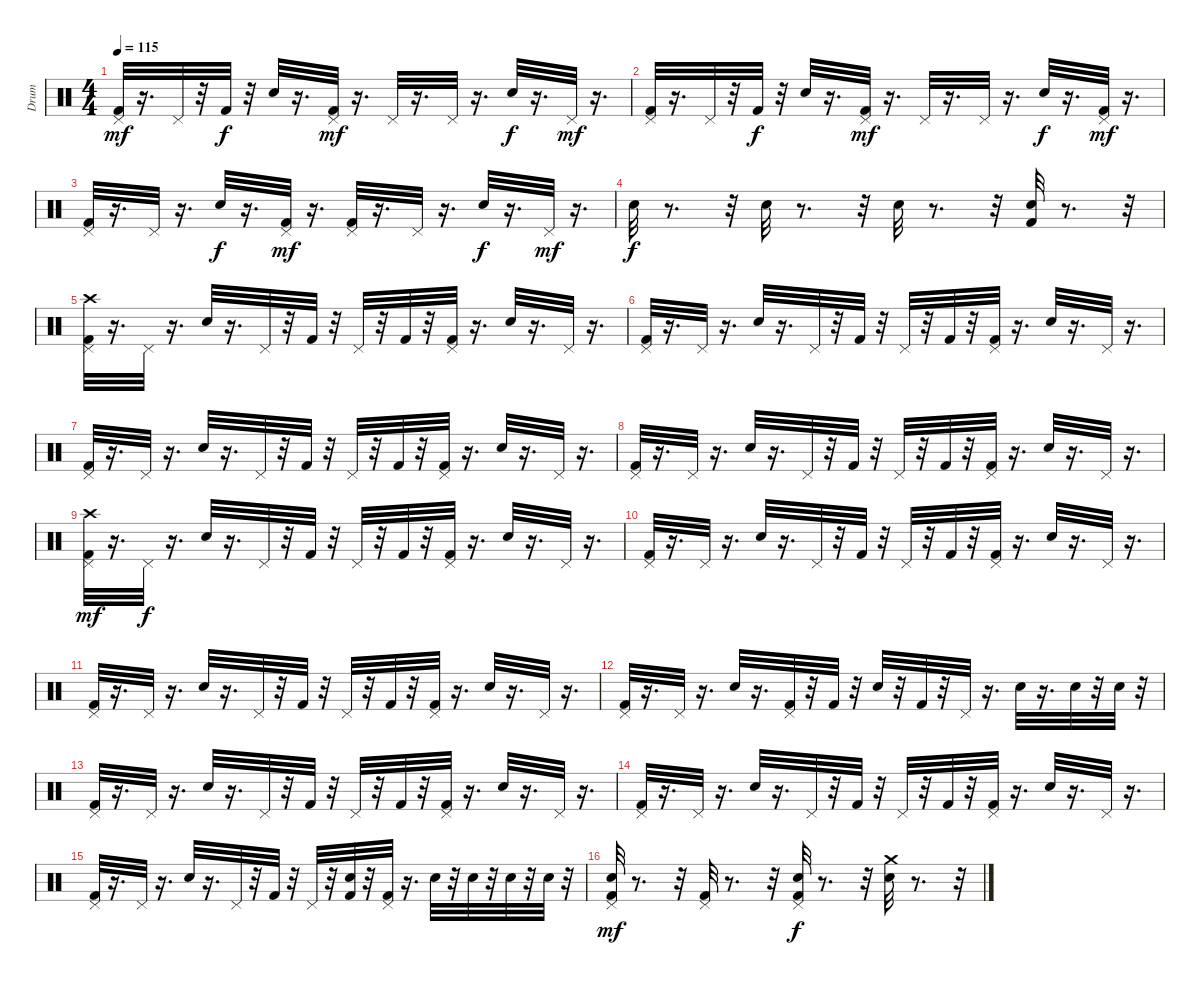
\track ("Drum" "Drum") {instrument percussion}
\staff {score}
\articulation defaults
\ts (4 4)
\tempo 115
\clef neutral
\ks c
("Kick (hit) 2" "Pedal Hi-Hat (hit)").32{dy mf} r.16{d} "Pedal Hi-Hat (hit)".32 r.32 "Kick (hit) 2".32{dy f} r.32 "Snare (hit) 2".32 r.16{d} ("Kick (hit) 2" "Pedal Hi-Hat (hit)").32{dy mf} r.16{d} "Pedal Hi-Hat (hit)".32 r.16{d} "Pedal Hi-Hat (hit)".32 r.16{d} "Snare (hit) 2".32{dy f} r.16{d} "Pedal Hi-Hat (hit)".32{dy mf} r.16{d} |
("Kick (hit) 2" "Pedal Hi-Hat (hit)").32 r.16{d} "Pedal Hi-Hat (hit)".32 r.32 "Kick (hit) 2".32{dy f} r.32 "Snare (hit) 2".32 r.16{d} ("Kick (hit) 2" "Pedal Hi-Hat (hit)").32{dy mf} r.16{d} "Pedal Hi-Hat (hit)".32 r.16{d} "Pedal Hi-Hat (hit)".32 r.16{d} "Snare (hit) 2".32{dy f} r.16{d} ("Kick (hit) 2" "Pedal Hi-Hat (hit)").32{dy mf} r.16{d} |
("Kick (hit) 2" "Pedal Hi-Hat (hit)").32 r.16{d} "Pedal Hi-Hat (hit)".32 r.16{d} "Snare (hit) 2".32{dy f} r.16{d} ("Kick (hit) 2" "Pedal Hi-Hat (hit)").32{dy mf} r.16{d} ("Kick (hit) 2" "Pedal Hi-Hat (hit)").32 r.16{d} "Pedal Hi-Hat (hit)".32 r.16{d} "Snare (hit) 2".32{dy f} r.16{d} "Pedal Hi-Hat (hit)".32{dy mf} r.16{d} |
"Snare (hit) 2".32{dy f} r.8{d} r.32 "Snare (hit) 2".32 r.8{d} r.32 "Snare (hit) 2".32 r.8{d} r.32 ("Snare (hit) 2" "Kick (hit) 2").32 r.8{d} r.32 |
("Kick (hit) 2" "Crash high (hit)" "Pedal Hi-Hat (hit)").32 r.16{d} "Pedal Hi-Hat (hit)".32 r.16{d} "Snare (hit) 2".32 r.16{d} "Pedal Hi-Hat (hit)".32 r.32 "Kick (hit) 2".32 r.32 "Pedal Hi-Hat (hit)".32 r.32 "Kick (hit) 2".32 r.32 ("Kick (hit) 2" "Pedal Hi-Hat (hit)").32 r.16{d} "Snare (hit) 2".32 r.16{d} "Pedal Hi-Hat (hit)".32 r.16{d} |
("Kick (hit) 2" "Pedal Hi-Hat (hit)").32 r.16{d} "Pedal Hi-Hat (hit)".32 r.16{d} "Snare (hit) 2".32 r.16{d} "Pedal Hi-Hat (hit)".32 r.32 "Kick (hit) 2".32 r.32 "Pedal Hi-Hat (hit)".32 r.32 "Kick (hit) 2".32 r.32 ("Kick (hit) 2" "Pedal Hi-Hat (hit)").32 r.16{d} "Snare (hit) 2".32 r.16{d} "Pedal Hi-Hat (hit)".32 r.16{d} |
("Kick (hit) 2" "Pedal Hi-Hat (hit)").32 r.16{d} "Pedal Hi-Hat (hit)".32 r.16{d} "Snare (hit) 2".32 r.16{d} "Pedal Hi-Hat (hit)".32 r.32 "Kick (hit) 2".32 r.32 "Pedal Hi-Hat (hit)".32 r.32 "Kick (hit) 2".32 r.32 ("Kick (hit) 2" "Pedal Hi-Hat (hit)").32 r.16{d} "Snare (hit) 2".32 r.16{d} "Pedal Hi-Hat (hit)".32 r.16{d} |
("Kick (hit) 2" "Pedal Hi-Hat (hit)").32 r.16{d} "Pedal Hi-Hat (hit)".32 r.16{d} "Snare (hit) 2".32 r.16{d} "Pedal Hi-Hat (hit)".32 r.32 "Kick (hit) 2".32 r.32 "Pedal Hi-Hat (hit)".32 r.32 "Kick (hit) 2".32 r.32 ("Kick (hit) 2" "Pedal Hi-Hat (hit)").32 r.16{d} "Snare (hit) 2".32 r.16{d} "Pedal Hi-Hat (hit)".32 r.16{d} |
("Kick (hit) 2" "Crash high (hit)" "Pedal Hi-Hat (hit)").32{dy mf} r.16{d} "Pedal Hi-Hat (hit)".32{dy f} r.16{d} "Snare (hit) 2".32 r.16{d} "Pedal Hi-Hat (hit)".32 r.32 "Kick (hit) 2".32 r.32 "Pedal Hi-Hat (hit)".32 r.32 "Kick (hit) 2".32 r.32 ("Kick (hit) 2" "Pedal Hi-Hat (hit)").32 r.16{d} "Snare (hit) 2".32 r.16{d} "Pedal Hi-Hat (hit)".32 r.16{d} |
("Kick (hit) 2" "Pedal Hi-Hat (hit)").32 r.16{d} "Pedal Hi-Hat (hit)".32 r.16{d} "Snare (hit) 2".32 r.16{d} "Pedal Hi-Hat (hit)".32 r.32 "Kick (hit) 2".32 r.32 "Pedal Hi-Hat (hit)".32 r.32 "Kick (hit) 2".32 r.32 ("Kick (hit) 2" "Pedal Hi-Hat (hit)").32 r.16{d} "Snare (hit) 2".32 r.16{d} "Pedal Hi-Hat (hit)".32 r.16{d} |
("Kick (hit) 2" "Pedal Hi-Hat (hit)").32 r.16{d} "Pedal Hi-Hat (hit)".32 r.16{d} "Snare (hit) 2".32 r.16{d} "Pedal Hi-Hat (hit)".32 r.32 "Kick (hit) 2".32 r.32 "Pedal Hi-Hat (hit)".32 r.32 "Kick (hit) 2".32 r.32 ("Kick (hit) 2" "Pedal Hi-Hat (hit)").32 r.16{d} "Snare (hit) 2".32 r.16{d} "Pedal Hi-Hat (hit)".32 r.16{d} |
("Kick (hit) 2" "Pedal Hi-Hat (hit)").32 r.16{d} "Pedal Hi-Hat (hit)".32 r.16{d} "Snare (hit) 2".32 r.16{d} ("Kick (hit) 2" "Pedal Hi-Hat (hit)").32 r.32 "Kick (hit) 2".32 r.32 "Snare (hit) 2".32 r.32 "Kick (hit) 2".32 r.32 "Pedal Hi-Hat (hit)".32 r.16{d} "Snare (hit) 2".32 r.16{d} "Snare (hit) 2".32 r.32 "Snare (hit) 2".32 r.32 |
("Kick (hit) 2" "Pedal Hi-Hat (hit)").32 r.16{d} "Pedal Hi-Hat (hit)".32 r.16{d} "Snare (hit) 2".32 r.16{d} "Pedal Hi-Hat (hit)".32 r.32 "Kick (hit) 2".32 r.32 "Pedal Hi-Hat (hit)".32 r.32 "Kick (hit) 2".32 r.32 ("Kick (hit) 2" "Pedal Hi-Hat (hit)").32 r.16{d} "Snare (hit) 2".32 r.16{d} "Pedal Hi-Hat (hit)".32 r.16{d} |
("Kick (hit) 2" "Pedal Hi-Hat (hit)").32 r.16{d} "Pedal Hi-Hat (hit)".32 r.16{d} "Snare (hit) 2".32 r.16{d} "Pedal Hi-Hat (hit)".32 r.32 "Kick (hit) 2".32 r.32 "Pedal Hi-Hat (hit)".32 r.32 "Kick (hit) 2".32 r.32 ("Kick (hit) 2" "Pedal Hi-Hat (hit)").32 r.16{d} "Snare (hit) 2".32 r.16{d} "Pedal Hi-Hat (hit)".32 r.16{d} |
("Kick (hit) 2" "Pedal Hi-Hat (hit)").32 r.16{d} "Pedal Hi-Hat (hit)".32 r.16{d} "Snare (hit) 2".32 r.16{d} "Pedal Hi-Hat (hit)".32 r.32 "Kick (hit) 2".32 r.32 "Pedal Hi-Hat (hit)".32 r.32 ("Snare (hit) 2" "Kick (hit) 2").32 r.32 ("Kick (hit) 2" "Pedal Hi-Hat (hit)").32 r.16{d} "Snare (hit) 2".32 r.32 "Snare (hit) 2".32 r.32 "Snare (hit) 2".32 r.32 "Snare (hit) 2".32 r.32 |
("Kick (hit) 2" "Snare (hit) 2" "Pedal Hi-Hat (hit)").32{dy mf} r.8{d} r.32 ("Kick (hit) 2" "Pedal Hi-Hat (hit)").32 r.8{d} r.32 ("Kick (hit) 2" "Snare (hit) 2" "Pedal Hi-Hat (hit)").32{dy f} r.8{d} r.32 ("Snare (hit) 2" "Crash medium (hit)").32 r.8{d} r.32
